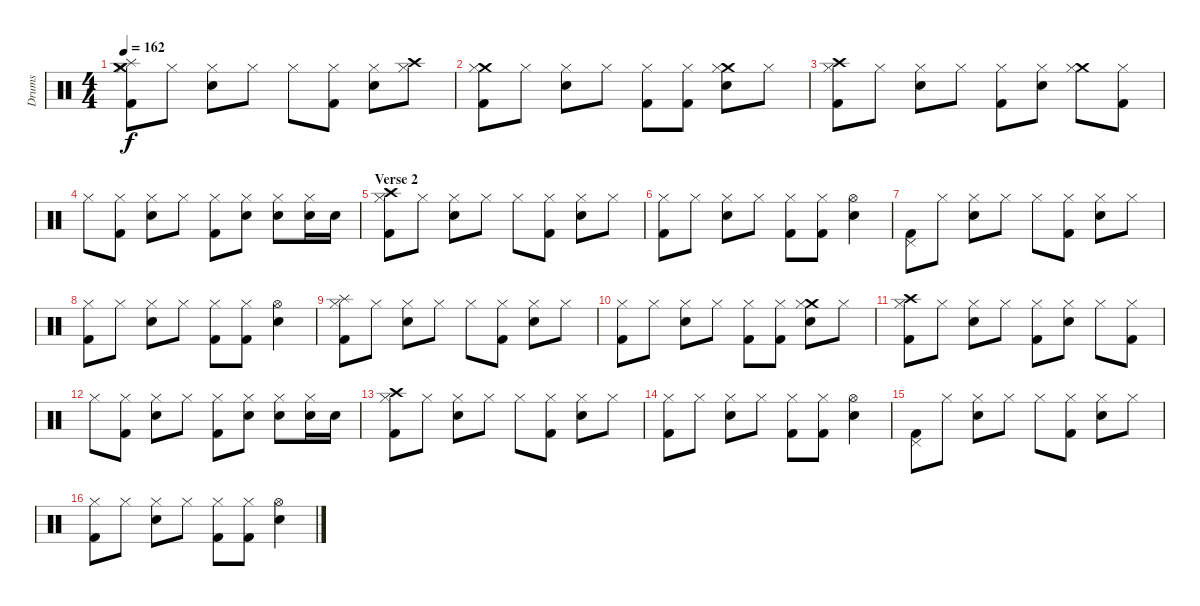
\track ("Drums" "Drums") {instrument percussion}
\staff {score}
\articulation defaults
\ts (4 4)
\tempo 162
\clef neutral
\ks c
("Crash medium (hit)" "Hi-Hat (closed)" "Splash (hit)" "Kick (hit) 2").8{dy f} "Hi-Hat (closed)".8 ("Hi-Hat (closed)" "Electric Snare (hit)").8 "Hi-Hat (closed)".8 "Hi-Hat (closed)".8 ("Hi-Hat (closed)" "Kick (hit) 2").8 ("Hi-Hat (closed)" "Electric Snare (hit)").8 ("Crash high (hit)" "Hi-Hat (closed)").8 |
("Crash medium (hit)" "Hi-Hat (closed)" "Kick (hit) 2").8 "Hi-Hat (closed)".8 ("Hi-Hat (closed)" "Electric Snare (hit)").8 "Hi-Hat (closed)".8 ("Hi-Hat (closed)" "Kick (hit) 2").8 ("Hi-Hat (closed)" "Kick (hit) 2").8 ("Crash medium (hit)" "Hi-Hat (closed)" "Electric Snare (hit)").8 "Hi-Hat (closed)".8 |
("Crash high (hit)" "Hi-Hat (closed)" "Kick (hit) 2").8 "Hi-Hat (closed)".8 ("Hi-Hat (closed)" "Electric Snare (hit)").8 "Hi-Hat (closed)".8 ("Hi-Hat (closed)" "Kick (hit) 2").8 ("Hi-Hat (closed)" "Electric Snare (hit)").8 ("Crash medium (hit)" "Hi-Hat (closed)").8 ("Hi-Hat (closed)" "Kick (hit) 2").8 |
"Hi-Hat (closed)".8 ("Hi-Hat (closed)" "Kick (hit) 2").8 ("Hi-Hat (closed)" "Electric Snare (hit)").8 "Hi-Hat (closed)".8 ("Hi-Hat (closed)" "Kick (hit) 2").8 ("Hi-Hat (closed)" "Electric Snare (hit)").8 ("Hi-Hat (closed)" "Electric Snare (hit)").8 ("Hi-Hat (closed)" "Electric Snare (hit)").16 "Electric Snare (hit)".16 |
\section ("" "Verse 2")
("Crash high (hit)" "Hi-Hat (closed)" "Kick (hit) 2").8 "Hi-Hat (closed)".8 ("Hi-Hat (closed)" "Electric Snare (hit)").8 "Hi-Hat (closed)".8 "Hi-Hat (closed)".8 ("Hi-Hat (closed)" "Kick (hit) 2").8 ("Hi-Hat (closed)" "Electric Snare (hit)").8 "Hi-Hat (closed)".8 |
("Hi-Hat (closed)" "Kick (hit) 2").8 "Hi-Hat (closed)".8 ("Hi-Hat (closed)" "Electric Snare (hit)").8 "Hi-Hat (closed)".8 ("Hi-Hat (closed)" "Kick (hit) 2").8 ("Hi-Hat (closed)" "Kick (hit) 2").8 ("Hi-Hat (open)" "Electric Snare (hit)").4 |
("Pedal Hi-Hat (hit)" "Kick (hit) 2").8 "Hi-Hat (closed)".8 ("Hi-Hat (closed)" "Electric Snare (hit)").8 "Hi-Hat (closed)".8 "Hi-Hat (closed)".8 ("Hi-Hat (closed)" "Kick (hit) 2").8 ("Hi-Hat (closed)" "Electric Snare (hit)").8 "Hi-Hat (closed)".8 |
("Hi-Hat (closed)" "Kick (hit) 2").8 "Hi-Hat (closed)".8 ("Hi-Hat (closed)" "Electric Snare (hit)").8 "Hi-Hat (closed)".8 ("Hi-Hat (closed)" "Kick (hit) 2").8 ("Hi-Hat (closed)" "Kick (hit) 2").8 ("Hi-Hat (open)" "Electric Snare (hit)").4 |
("Hi-Hat (closed)" "Splash (hit)" "Kick (hit) 2").8 "Hi-Hat (closed)".8 ("Hi-Hat (closed)" "Electric Snare (hit)").8 "Hi-Hat (closed)".8 "Hi-Hat (closed)".8 ("Hi-Hat (closed)" "Kick (hit) 2").8 ("Hi-Hat (closed)" "Electric Snare (hit)").8 "Hi-Hat (closed)".8 |
("Hi-Hat (closed)" "Kick (hit) 2").8 "Hi-Hat (closed)".8 ("Hi-Hat (closed)" "Electric Snare (hit)").8 "Hi-Hat (closed)".8 ("Hi-Hat (closed)" "Kick (hit) 2").8 ("Hi-Hat (closed)" "Kick (hit) 2").8 ("Crash medium (hit)" "Hi-Hat (closed)" "Electric Snare (hit)").8 "Hi-Hat (closed)".8 |
("Crash high (hit)" "Hi-Hat (closed)" "Kick (hit) 2").8 "Hi-Hat (closed)".8 ("Hi-Hat (closed)" "Electric Snare (hit)").8 "Hi-Hat (closed)".8 ("Hi-Hat (closed)" "Kick (hit) 2").8 ("Hi-Hat (closed)" "Electric Snare (hit)").8 "Hi-Hat (closed)".8 ("Hi-Hat (closed)" "Kick (hit) 2").8 |
"Hi-Hat (closed)".8 ("Hi-Hat (closed)" "Kick (hit) 2").8 ("Hi-Hat (closed)" "Electric Snare (hit)").8 "Hi-Hat (closed)".8 ("Hi-Hat (closed)" "Kick (hit) 2").8 ("Hi-Hat (closed)" "Electric Snare (hit)").8 ("Hi-Hat (closed)" "Electric Snare (hit)").8 ("Hi-Hat (closed)" "Electric Snare (hit)").16 "Electric Snare (hit)".16 |
("Crash high (hit)" "Hi-Hat (closed)" "Kick (hit) 2").8 "Hi-Hat (closed)".8 ("Hi-Hat (closed)" "Electric Snare (hit)").8 "Hi-Hat (closed)".8 "Hi-Hat (closed)".8 ("Hi-Hat (closed)" "Kick (hit) 2").8 ("Hi-Hat (closed)" "Electric Snare (hit)").8 "Hi-Hat (closed)".8 |
("Hi-Hat (closed)" "Kick (hit) 2").8 "Hi-Hat (closed)".8 ("Hi-Hat (closed)" "Electric Snare (hit)").8 "Hi-Hat (closed)".8 ("Hi-Hat (closed)" "Kick (hit) 2").8 ("Hi-Hat (closed)" "Kick (hit) 2").8 ("Hi-Hat (open)" "Electric Snare (hit)").4 |
("Pedal Hi-Hat (hit)" "Kick (hit) 2").8 "Hi-Hat (closed)".8 ("Hi-Hat (closed)" "Electric Snare (hit)").8 "Hi-Hat (closed)".8 "Hi-Hat (closed)".8 ("Hi-Hat (closed)" "Kick (hit) 2").8 ("Hi-Hat (closed)" "Electric Snare (hit)").8 "Hi-Hat (closed)".8 |
("Hi-Hat (closed)" "Kick (hit) 2").8 "Hi-Hat (closed)".8 ("Hi-Hat (closed)" "Electric Snare (hit)").8 "Hi-Hat (closed)".8 ("Hi-Hat (closed)" "Kick (hit) 2").8 ("Hi-Hat (closed)" "Kick (hit) 2").8 ("Hi-Hat (open)" "Electric Snare (hit)").4
